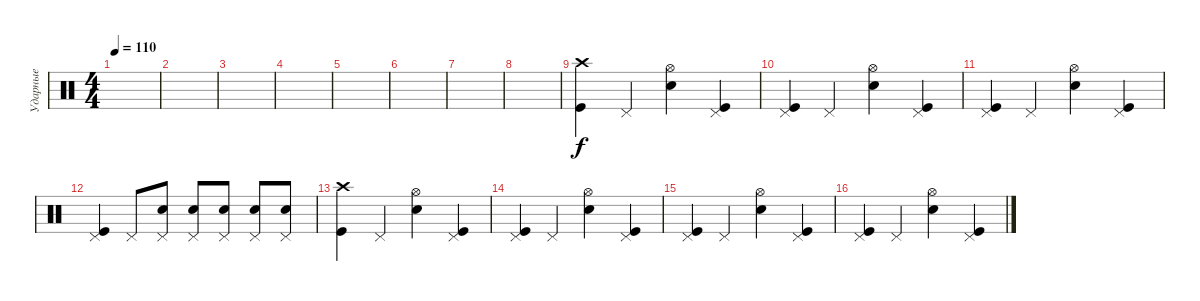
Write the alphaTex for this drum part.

\track ("Ударные" "Ударные") {instrument percussion}
\staff {score}
\articulation defaults
\ts (4 4)
\tempo 110
\clef neutral
\ks c
|
|
|
|
|
|
|
|
("Kick (hit)" "Crash high (hit)").4 "Pedal Hi-Hat (hit)".4 ("Hi-Hat (open)" "Snare (hit) 2").4 ("Kick (hit)" "Pedal Hi-Hat (hit)").4 |
("Kick (hit)" "Pedal Hi-Hat (hit)").4 "Pedal Hi-Hat (hit)".4 ("Hi-Hat (open)" "Snare (hit) 2").4 ("Kick (hit)" "Pedal Hi-Hat (hit)").4 |
("Kick (hit)" "Pedal Hi-Hat (hit)").4 "Pedal Hi-Hat (hit)".4 ("Hi-Hat (open)" "Snare (hit) 2").4 ("Kick (hit)" "Pedal Hi-Hat (hit)").4 |
("Kick (hit)" "Pedal Hi-Hat (hit)").4 "Pedal Hi-Hat (hit)".8 ("Pedal Hi-Hat (hit)" "Snare (hit) 2").8 ("Pedal Hi-Hat (hit)" "Snare (hit) 2").8 ("Pedal Hi-Hat (hit)" "Snare (hit) 2").8 ("Pedal Hi-Hat (hit)" "Snare (hit) 2").8 ("Pedal Hi-Hat (hit)" "Snare (hit) 2").8 |
("Kick (hit)" "Crash high (hit)").4 "Pedal Hi-Hat (hit)".4 ("Hi-Hat (open)" "Snare (hit) 2").4 ("Kick (hit)" "Pedal Hi-Hat (hit)").4 |
("Kick (hit)" "Pedal Hi-Hat (hit)").4 "Pedal Hi-Hat (hit)".4 ("Hi-Hat (open)" "Snare (hit) 2").4 ("Kick (hit)" "Pedal Hi-Hat (hit)").4 |
("Kick (hit)" "Pedal Hi-Hat (hit)").4 "Pedal Hi-Hat (hit)".4 ("Hi-Hat (open)" "Snare (hit) 2").4 ("Kick (hit)" "Pedal Hi-Hat (hit)").4 |
("Kick (hit)" "Pedal Hi-Hat (hit)").4 "Pedal Hi-Hat (hit)".4 ("Hi-Hat (open)" "Snare (hit) 2").4 ("Kick (hit)" "Pedal Hi-Hat (hit)").4
